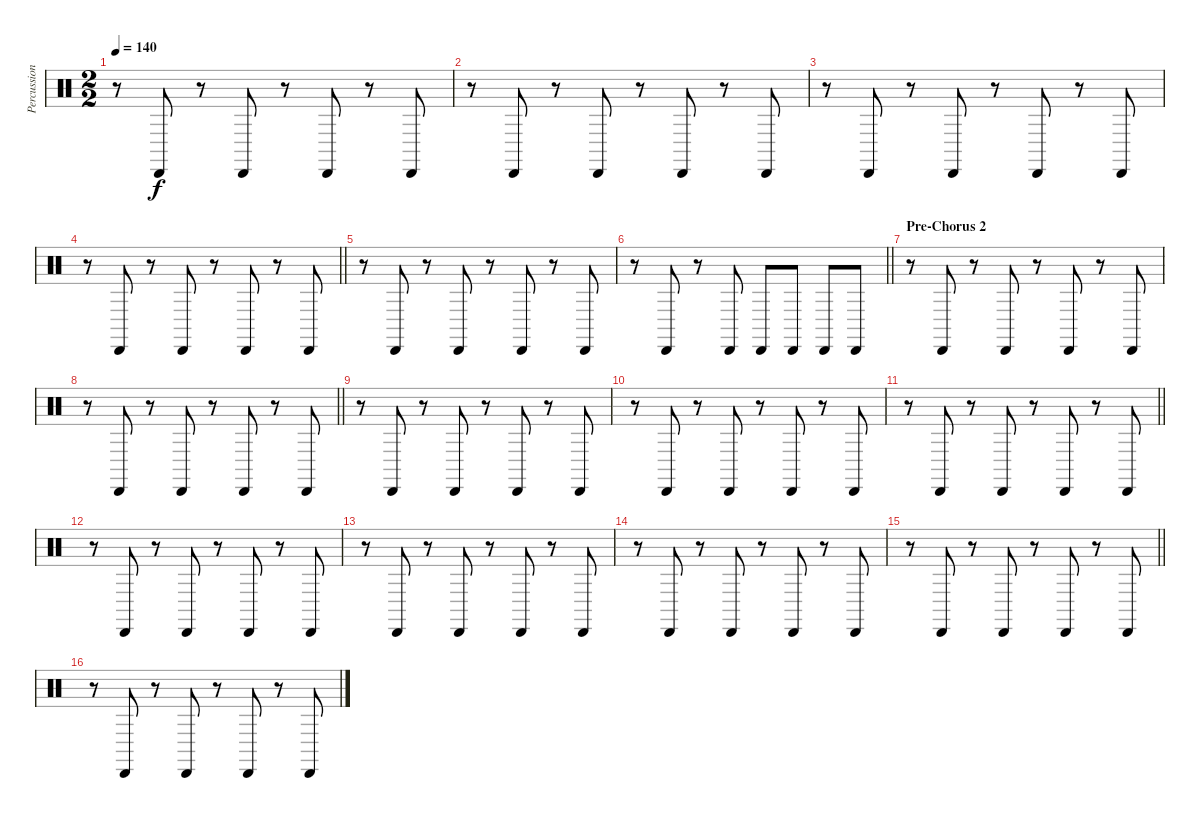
\track ("Percussion 2" "Percussion") {instrument percussion}
\staff {score}
\articulation defaults
\ts (2 2)
\tempo 140
\clef neutral
\ks c
r.8{dy f} "Cabasa (hit)".8 r.8 "Cabasa (hit)".8 r.8 "Cabasa (hit)".8 r.8 "Cabasa (hit)".8 |
r.8 "Cabasa (hit)".8 r.8 "Cabasa (hit)".8 r.8 "Cabasa (hit)".8 r.8 "Cabasa (hit)".8 |
r.8 "Cabasa (hit)".8 r.8 "Cabasa (hit)".8 r.8 "Cabasa (hit)".8 r.8 "Cabasa (hit)".8 |
\barLineRight lightlight
r.8 "Cabasa (hit)".8 r.8 "Cabasa (hit)".8 r.8 "Cabasa (hit)".8 r.8 "Cabasa (hit)".8 |
r.8 "Cabasa (hit)".8 r.8 "Cabasa (hit)".8 r.8 "Cabasa (hit)".8 r.8 "Cabasa (hit)".8 |
\barLineRight lightlight
r.8 "Cabasa (hit)".8 r.8 "Cabasa (hit)".8 "Cabasa (hit)".8 "Cabasa (hit)".8 "Cabasa (hit)".8 "Cabasa (hit)".8 |
\section ("" "Pre-Chorus 2")
r.8 "Cabasa (hit)".8 r.8 "Cabasa (hit)".8 r.8 "Cabasa (hit)".8 r.8 "Cabasa (hit)".8 |
\barLineRight lightlight
r.8 "Cabasa (hit)".8 r.8 "Cabasa (hit)".8 r.8 "Cabasa (hit)".8 r.8 "Cabasa (hit)".8 |
r.8 "Cabasa (hit)".8 r.8 "Cabasa (hit)".8 r.8 "Cabasa (hit)".8 r.8 "Cabasa (hit)".8 |
r.8 "Cabasa (hit)".8 r.8 "Cabasa (hit)".8 r.8 "Cabasa (hit)".8 r.8 "Cabasa (hit)".8 |
\barLineRight lightlight
r.8 "Cabasa (hit)".8 r.8 "Cabasa (hit)".8 r.8 "Cabasa (hit)".8 r.8 "Cabasa (hit)".8 |
r.8 "Cabasa (hit)".8 r.8 "Cabasa (hit)".8 r.8 "Cabasa (hit)".8 r.8 "Cabasa (hit)".8 |
r.8 "Cabasa (hit)".8 r.8 "Cabasa (hit)".8 r.8 "Cabasa (hit)".8 r.8 "Cabasa (hit)".8 |
r.8 "Cabasa (hit)".8 r.8 "Cabasa (hit)".8 r.8 "Cabasa (hit)".8 r.8 "Cabasa (hit)".8 |
\barLineRight lightlight
r.8 "Cabasa (hit)".8 r.8 "Cabasa (hit)".8 r.8 "Cabasa (hit)".8 r.8 "Cabasa (hit)".8 |
r.8 "Cabasa (hit)".8 r.8 "Cabasa (hit)".8 r.8 "Cabasa (hit)".8 r.8 "Cabasa (hit)".8
